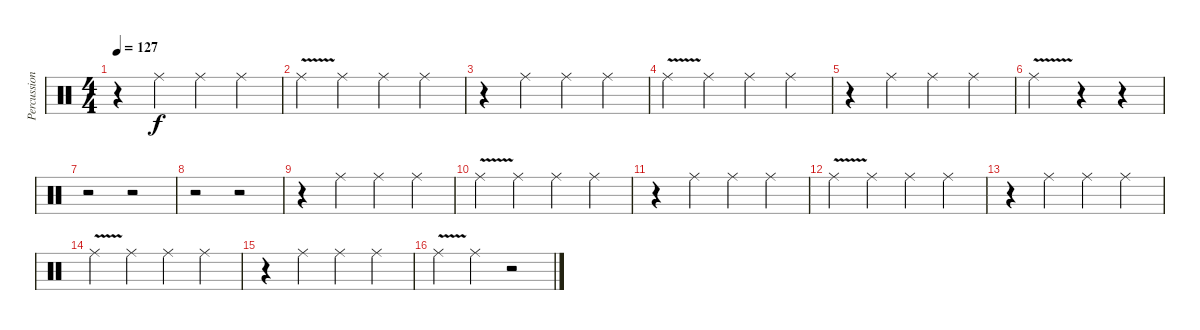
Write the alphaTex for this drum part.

\track ("Percussion" "Percussion") {instrument percussion}
\staff {score}
\articulation defaults
\ts (4 4)
\tempo 127
\clef neutral
\ks c
r.4{dy f} "Ride (middle)".4 "Ride (middle)".4 "Ride (middle)".4 |
"Ride (middle)"{v}.4 "Ride (middle)".4 "Ride (middle)".4 "Ride (middle)".4 |
r.4 "Ride (middle)".4 "Ride (middle)".4 "Ride (middle)".4 |
"Ride (middle)"{v}.4 "Ride (middle)".4 "Ride (middle)".4 "Ride (middle)".4 |
r.4 "Ride (middle)".4 "Ride (middle)".4 "Ride (middle)".4 |
"Ride (middle)"{v}.2 r.4 r.4 |
r.2 r.2 |
r.2 r.2 |
r.4 "Ride (middle)".4 "Ride (middle)".4 "Ride (middle)".4 |
"Ride (middle)"{v}.4 "Ride (middle)".4 "Ride (middle)".4 "Ride (middle)".4 |
r.4 "Ride (middle)".4 "Ride (middle)".4 "Ride (middle)".4 |
"Ride (middle)"{v}.4 "Ride (middle)".4 "Ride (middle)".4 "Ride (middle)".4 |
r.4 "Ride (middle)".4 "Ride (middle)".4 "Ride (middle)".4 |
"Ride (middle)"{v}.4 "Ride (middle)".4 "Ride (middle)".4 "Ride (middle)".4 |
r.4 "Ride (middle)".4 "Ride (middle)".4 "Ride (middle)".4 |
"Ride (middle)"{v}.4 "Ride (middle)".4 r.2
